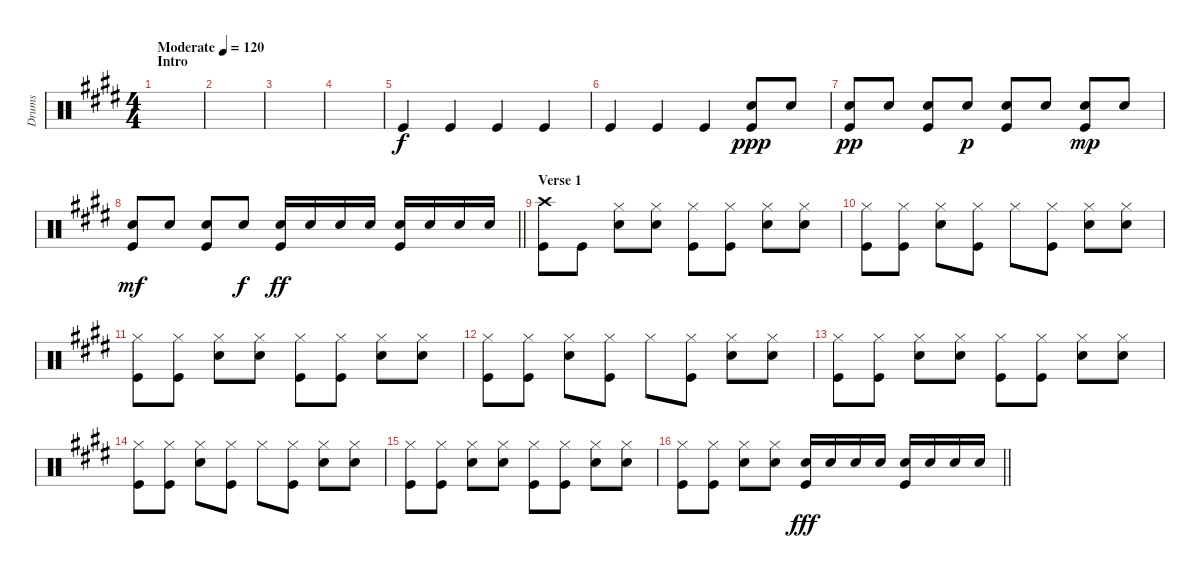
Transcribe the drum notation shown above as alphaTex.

\track ("Drums" "Drums") {instrument percussion}
\staff {score}
\articulation defaults
\ts (4 4)
\section ("" "Intro")
\tempo (120 "Moderate")
\clef neutral
\ks e
|
|
|
|
"Kick (hit)".4 "Kick (hit)".4 "Kick (hit)".4 "Kick (hit)".4 |
"Kick (hit)".4 "Kick (hit)".4 "Kick (hit)".4 ("Snare (hit) 2" "Kick (hit)").8{dy ppp} "Snare (hit) 2".8 |
("Snare (hit) 2" "Kick (hit)").8{dy pp} "Snare (hit) 2".8 ("Snare (hit) 2" "Kick (hit)").8 "Snare (hit) 2".8{dy p} ("Snare (hit) 2" "Kick (hit)").8 "Snare (hit) 2".8 ("Snare (hit) 2" "Kick (hit)").8{dy mp} "Snare (hit) 2".8 |
\barLineRight lightlight
("Snare (hit) 2" "Kick (hit)").8{dy mf} "Snare (hit) 2".8 ("Snare (hit) 2" "Kick (hit)").8 "Snare (hit) 2".8{dy f} ("Snare (hit) 2" "Kick (hit)").16{dy ff} "Snare (hit) 2".16 "Snare (hit) 2".16 "Snare (hit) 2".16 ("Snare (hit) 2" "Kick (hit)").16 "Snare (hit) 2".16 "Snare (hit) 2".16 "Snare (hit) 2".16 |
\section ("" "Verse 1")
("Crash high (hit)" "Kick (hit)").8 "Kick (hit)".8 ("Hi-Hat (closed)" "Snare (hit) 2").8 ("Hi-Hat (closed)" "Snare (hit) 2").8 ("Hi-Hat (closed)" "Kick (hit)").8 ("Hi-Hat (closed)" "Kick (hit)").8 ("Hi-Hat (closed)" "Snare (hit) 2").8 ("Hi-Hat (closed)" "Snare (hit) 2").8 |
("Hi-Hat (closed)" "Kick (hit)").8 ("Hi-Hat (closed)" "Kick (hit)").8 ("Hi-Hat (closed)" "Snare (hit) 2").8 ("Hi-Hat (closed)" "Kick (hit)").8 "Hi-Hat (closed)".8 ("Hi-Hat (closed)" "Kick (hit)").8 ("Hi-Hat (closed)" "Snare (hit) 2").8 ("Hi-Hat (closed)" "Snare (hit) 2").8 |
("Hi-Hat (closed)" "Kick (hit)").8 ("Hi-Hat (closed)" "Kick (hit)").8 ("Hi-Hat (closed)" "Snare (hit) 2").8 ("Hi-Hat (closed)" "Snare (hit) 2").8 ("Hi-Hat (closed)" "Kick (hit)").8 ("Hi-Hat (closed)" "Kick (hit)").8 ("Hi-Hat (closed)" "Snare (hit) 2").8 ("Hi-Hat (closed)" "Snare (hit) 2").8 |
("Hi-Hat (closed)" "Kick (hit)").8 ("Hi-Hat (closed)" "Kick (hit)").8 ("Hi-Hat (closed)" "Snare (hit) 2").8 ("Hi-Hat (closed)" "Kick (hit)").8 "Hi-Hat (closed)".8 ("Hi-Hat (closed)" "Kick (hit)").8 ("Hi-Hat (closed)" "Snare (hit) 2").8 ("Hi-Hat (closed)" "Snare (hit) 2").8 |
("Hi-Hat (closed)" "Kick (hit)").8 ("Hi-Hat (closed)" "Kick (hit)").8 ("Hi-Hat (closed)" "Snare (hit) 2").8 ("Hi-Hat (closed)" "Snare (hit) 2").8 ("Hi-Hat (closed)" "Kick (hit)").8 ("Hi-Hat (closed)" "Kick (hit)").8 ("Hi-Hat (closed)" "Snare (hit) 2").8 ("Hi-Hat (closed)" "Snare (hit) 2").8 |
("Hi-Hat (closed)" "Kick (hit)").8 ("Hi-Hat (closed)" "Kick (hit)").8 ("Hi-Hat (closed)" "Snare (hit) 2").8 ("Hi-Hat (closed)" "Kick (hit)").8 "Hi-Hat (closed)".8 ("Hi-Hat (closed)" "Kick (hit)").8 ("Hi-Hat (closed)" "Snare (hit) 2").8 ("Hi-Hat (closed)" "Snare (hit) 2").8 |
("Hi-Hat (closed)" "Kick (hit)").8 ("Hi-Hat (closed)" "Kick (hit)").8 ("Hi-Hat (closed)" "Snare (hit) 2").8 ("Hi-Hat (closed)" "Snare (hit) 2").8 ("Hi-Hat (closed)" "Kick (hit)").8 ("Hi-Hat (closed)" "Kick (hit)").8 ("Hi-Hat (closed)" "Snare (hit) 2").8 ("Hi-Hat (closed)" "Snare (hit) 2").8 |
\barLineRight lightlight
("Hi-Hat (closed)" "Kick (hit)").8 ("Hi-Hat (closed)" "Kick (hit)").8 ("Hi-Hat (closed)" "Snare (hit) 2").8 ("Hi-Hat (closed)" "Snare (hit) 2").8 ("Snare (hit) 2" "Kick (hit)").16{dy fff} "Snare (hit) 2".16 "Snare (hit) 2".16 "Snare (hit) 2".16 ("Snare (hit) 2" "Kick (hit)").16 "Snare (hit) 2".16 "Snare (hit) 2".16 "Snare (hit) 2".16
